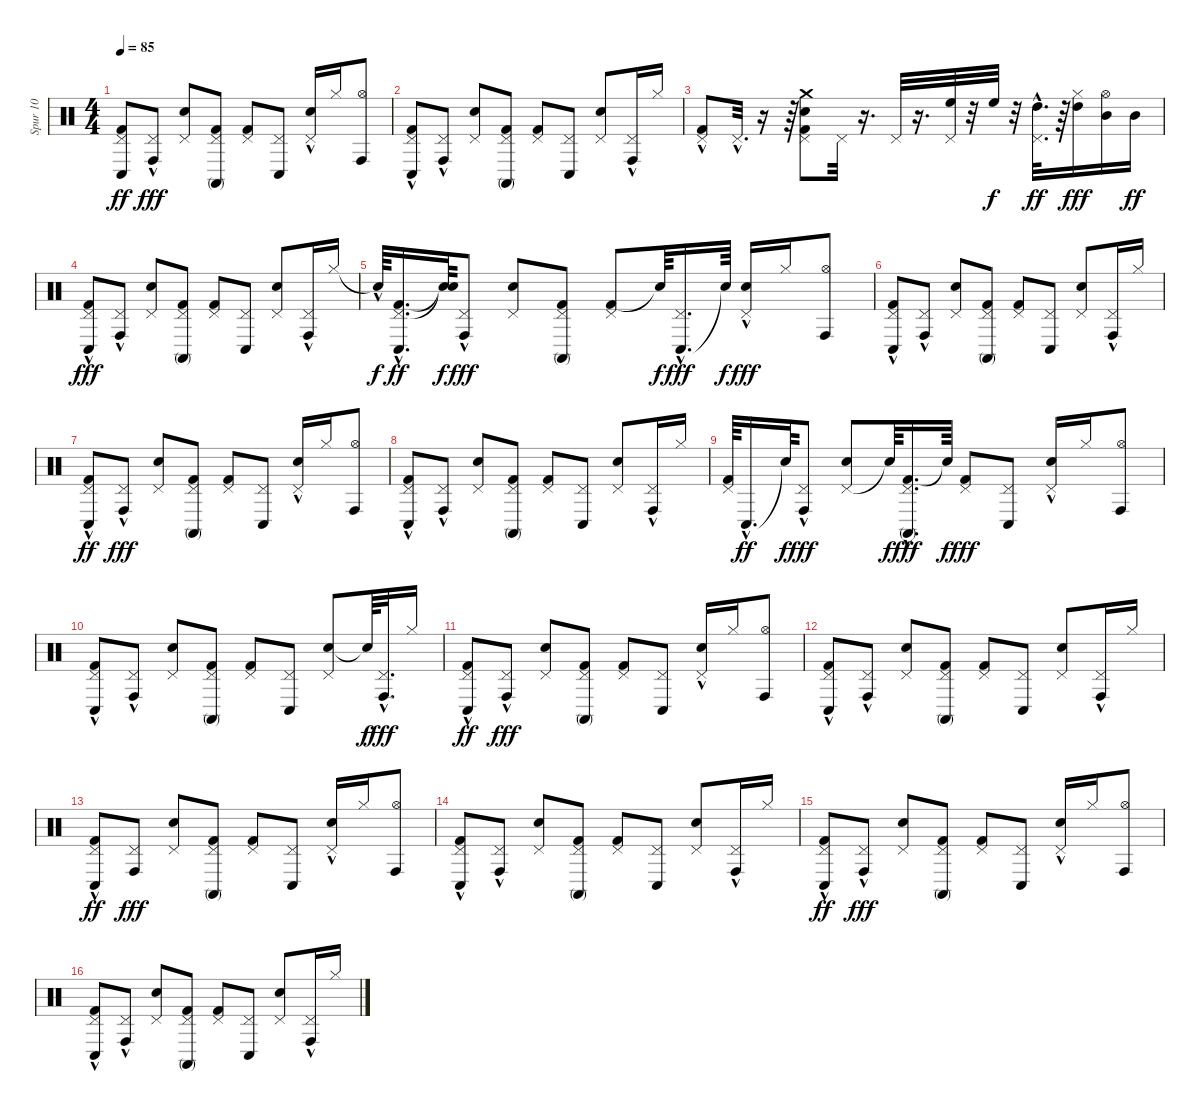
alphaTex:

\track ("Spur 10" "Spur 10") {instrument percussion}
\staff {score}
\articulation defaults
\ts (4 4)
\tempo 85
\clef neutral
\ks c
("Pedal Hi-Hat (hit)" "Kick (hit) 2" "Conga low (hit)").8{dy ff} ("Conga high (hit)" "Pedal Hi-Hat (hit)"{hac}).8{dy fff} ("Pedal Hi-Hat (hit)" "Snare (hit) 2").8 ("Kick (hit) 2" "Conga high (mute)" "Pedal Hi-Hat (hit)").8 ("Kick (hit) 2" "Pedal Hi-Hat (hit)").8 ("Conga low (hit)" "Pedal Hi-Hat (hit)").8 ("Snare (hit) 2" "Pedal Hi-Hat (hit)"{hac}).16 "Hi-Hat (closed)".16 ("Conga high (hit)" "Hi-Hat (open)").8 |
("Kick (hit) 2" "Conga low (hit)" "Pedal Hi-Hat (hit)"{hac}).8 ("Conga high (hit)" "Pedal Hi-Hat (hit)"{hac}).8 ("Snare (hit) 2" "Pedal Hi-Hat (hit)").8 ("Kick (hit) 2" "Conga high (mute)" "Pedal Hi-Hat (hit)").8 ("Kick (hit) 2" "Pedal Hi-Hat (hit)").8 ("Conga low (hit)" "Pedal Hi-Hat (hit)").8 ("Snare (hit) 2" "Pedal Hi-Hat (hit)").8 ("Conga high (hit)" "Pedal Hi-Hat (hit)"{hac}).16 "Hi-Hat (closed)".16 |
("Pedal Hi-Hat (hit)"{hac} "Kick (hit) 2").8 "Pedal Hi-Hat (hit)"{hac}.32{d} r.16 r.64 ("Kick (hit) 2" "Snare (hit) 2" "Pedal Hi-Hat (hit)" "Crash medium (hit)").8 "Pedal Hi-Hat (hit)".32 r.16{d} "Pedal Hi-Hat (hit)".32 r.16{d} ("High Floor Tom (hit)" "Pedal Hi-Hat (hit)").32 r.32 "High Floor Tom (hit)".32{dy f} r.32 ("Pedal Hi-Hat (hit)"{hac} "High Tom (hit)").32{d dy ff} r.64 ("High Tom (hit)" "Hi-Hat (closed)").16{dy fff} ("Mid Tom (hit)" "Hi-Hat (open)").16 "Mid Tom (hit)".16{dy ff} |
("Kick (hit) 2" "Conga low (hit)" "Pedal Hi-Hat (hit)"{hac}).8{dy fff} ("Conga high (hit)" "Pedal Hi-Hat (hit)"{hac}).8 ("Snare (hit) 2" "Pedal Hi-Hat (hit)").8 ("Kick (hit) 2" "Conga high (mute)" "Pedal Hi-Hat (hit)").8 ("Kick (hit) 2" "Pedal Hi-Hat (hit)").8 ("Conga low (hit)" "Pedal Hi-Hat (hit)").8 ("Snare (hit) 2" "Pedal Hi-Hat (hit)").8 ("Conga high (hit)" "Pedal Hi-Hat (hit)"{hac}).16 "Hi-Hat (closed)".16 |
"Snare (hit)"{hac t}.64{dy f} ("Pedal Hi-Hat (hit)" "Kick (hit) 2"{hac} "Conga low (hit)"{hac}).16{d dy ff} ("Snare (hit)"{t} "Snare (hit)"{t}).64{dy f} ("Conga high (hit)" "Pedal Hi-Hat (hit)"{hac}).8{dy fff} ("Pedal Hi-Hat (hit)" "Snare (hit) 2").8 ("Kick (hit) 2" "Conga high (mute)" "Pedal Hi-Hat (hit)").8 ("Kick (hit) 2" "Pedal Hi-Hat (hit)").8 "Snare (hit)"{t}.64{dy f} ("Conga low (hit)"{hac} "Pedal Hi-Hat (hit)").16{d dy fff} "Snare (hit)"{t}.64{dy f} ("Snare (hit) 2" "Pedal Hi-Hat (hit)"{hac}).16{dy fff} "Hi-Hat (closed)".16 ("Conga high (hit)" "Hi-Hat (open)").8 |
("Kick (hit) 2" "Conga low (hit)" "Pedal Hi-Hat (hit)"{hac}).8 ("Conga high (hit)" "Pedal Hi-Hat (hit)"{hac}).8 ("Snare (hit) 2" "Pedal Hi-Hat (hit)").8 ("Kick (hit) 2" "Conga high (mute)" "Pedal Hi-Hat (hit)").8 ("Kick (hit) 2" "Pedal Hi-Hat (hit)").8 ("Conga low (hit)" "Pedal Hi-Hat (hit)").8 ("Snare (hit) 2" "Pedal Hi-Hat (hit)").8 ("Conga high (hit)" "Pedal Hi-Hat (hit)"{hac}).16 "Hi-Hat (closed)".16 |
("Pedal Hi-Hat (hit)"{hac} "Kick (hit) 2" "Conga low (hit)").8{dy ff} ("Conga high (hit)" "Pedal Hi-Hat (hit)"{hac}).8{dy fff} ("Pedal Hi-Hat (hit)" "Snare (hit) 2").8 ("Kick (hit) 2" "Conga high (mute)" "Pedal Hi-Hat (hit)").8 ("Kick (hit) 2" "Pedal Hi-Hat (hit)").8 ("Conga low (hit)" "Pedal Hi-Hat (hit)").8 ("Snare (hit) 2" "Pedal Hi-Hat (hit)"{hac}).16 "Hi-Hat (closed)".16 ("Conga high (hit)" "Hi-Hat (open)").8 |
("Kick (hit) 2" "Conga low (hit)" "Pedal Hi-Hat (hit)"{hac}).8 ("Conga high (hit)" "Pedal Hi-Hat (hit)"{hac}).8 ("Snare (hit) 2" "Pedal Hi-Hat (hit)").8 ("Kick (hit) 2" "Conga high (mute)" "Pedal Hi-Hat (hit)").8 ("Kick (hit) 2" "Pedal Hi-Hat (hit)").8 ("Conga low (hit)" "Pedal Hi-Hat (hit)").8 ("Snare (hit) 2" "Pedal Hi-Hat (hit)").8 ("Conga high (hit)" "Pedal Hi-Hat (hit)"{hac}).16 "Hi-Hat (closed)".16 |
("Pedal Hi-Hat (hit)" "Kick (hit) 2").64 "Conga low (hit)"{hac}.16{d dy ff} "Snare (hit)"{t}.64{dy f} ("Conga high (hit)" "Pedal Hi-Hat (hit)"{hac}).8{dy fff} ("Pedal Hi-Hat (hit)" "Snare (hit) 2").8 "Snare (hit)"{t}.64{dy f} ("Kick (hit) 2" "Conga high (mute)"{hac} "Pedal Hi-Hat (hit)").16{d dy fff} "Snare (hit)"{t}.64{dy f} ("Kick (hit) 2" "Pedal Hi-Hat (hit)").8{dy fff} ("Conga low (hit)" "Pedal Hi-Hat (hit)").8 ("Snare (hit) 2" "Pedal Hi-Hat (hit)"{hac}).16 "Hi-Hat (closed)".16 ("Conga high (hit)" "Hi-Hat (open)").8 |
("Kick (hit) 2" "Conga low (hit)" "Pedal Hi-Hat (hit)"{hac}).8 ("Conga high (hit)" "Pedal Hi-Hat (hit)"{hac}).8 ("Snare (hit) 2" "Pedal Hi-Hat (hit)").8 ("Kick (hit) 2" "Conga high (mute)" "Pedal Hi-Hat (hit)").8 ("Kick (hit) 2" "Pedal Hi-Hat (hit)").8 ("Conga low (hit)" "Pedal Hi-Hat (hit)").8 ("Snare (hit) 2" "Pedal Hi-Hat (hit)").8 "Snare (hit)"{t}.64{dy f} ("Conga high (hit)"{hac} "Pedal Hi-Hat (hit)").32{d dy fff} "Hi-Hat (closed)".16 |
("Pedal Hi-Hat (hit)"{hac} "Kick (hit) 2" "Conga low (hit)").8{dy ff} ("Conga high (hit)" "Pedal Hi-Hat (hit)"{hac}).8{dy fff} ("Pedal Hi-Hat (hit)" "Snare (hit) 2").8 ("Kick (hit) 2" "Conga high (mute)" "Pedal Hi-Hat (hit)").8 ("Kick (hit) 2" "Pedal Hi-Hat (hit)").8 ("Conga low (hit)" "Pedal Hi-Hat (hit)").8 ("Snare (hit) 2" "Pedal Hi-Hat (hit)"{hac}).16 "Hi-Hat (closed)".16 ("Conga high (hit)" "Hi-Hat (open)").8 |
("Kick (hit) 2" "Conga low (hit)" "Pedal Hi-Hat (hit)"{hac}).8 ("Conga high (hit)" "Pedal Hi-Hat (hit)"{hac}).8 ("Snare (hit) 2" "Pedal Hi-Hat (hit)").8 ("Kick (hit) 2" "Conga high (mute)" "Pedal Hi-Hat (hit)").8 ("Kick (hit) 2" "Pedal Hi-Hat (hit)").8 ("Conga low (hit)" "Pedal Hi-Hat (hit)").8 ("Snare (hit) 2" "Pedal Hi-Hat (hit)").8 ("Conga high (hit)" "Pedal Hi-Hat (hit)"{hac}).16 "Hi-Hat (closed)".16 |
("Pedal Hi-Hat (hit)"{hac} "Kick (hit) 2" "Conga low (hit)").8{dy ff} ("Conga high (hit)" "Pedal Hi-Hat (hit)").8{dy fff} ("Pedal Hi-Hat (hit)" "Snare (hit) 2").8 ("Kick (hit) 2" "Conga high (mute)" "Pedal Hi-Hat (hit)").8 ("Kick (hit) 2" "Pedal Hi-Hat (hit)").8 ("Conga low (hit)" "Pedal Hi-Hat (hit)").8 ("Snare (hit) 2" "Pedal Hi-Hat (hit)"{hac}).16 "Hi-Hat (closed)".16 ("Conga high (hit)" "Hi-Hat (open)").8 |
("Kick (hit) 2" "Conga low (hit)" "Pedal Hi-Hat (hit)"{hac}).8 ("Conga high (hit)" "Pedal Hi-Hat (hit)"{hac}).8 ("Snare (hit) 2" "Pedal Hi-Hat (hit)").8 ("Kick (hit) 2" "Conga high (mute)" "Pedal Hi-Hat (hit)").8 ("Kick (hit) 2" "Pedal Hi-Hat (hit)").8 ("Conga low (hit)" "Pedal Hi-Hat (hit)").8 ("Snare (hit) 2" "Pedal Hi-Hat (hit)").8 ("Conga high (hit)" "Pedal Hi-Hat (hit)"{hac}).16 "Hi-Hat (closed)".16 |
("Pedal Hi-Hat (hit)"{hac} "Kick (hit) 2" "Conga low (hit)").8{dy ff} ("Conga high (hit)" "Pedal Hi-Hat (hit)"{hac}).8{dy fff} ("Pedal Hi-Hat (hit)" "Snare (hit) 2").8 ("Kick (hit) 2" "Conga high (mute)" "Pedal Hi-Hat (hit)").8 ("Kick (hit) 2" "Pedal Hi-Hat (hit)").8 ("Conga low (hit)" "Pedal Hi-Hat (hit)").8 ("Snare (hit) 2" "Pedal Hi-Hat (hit)"{hac}).16 "Hi-Hat (closed)".16 ("Conga high (hit)" "Hi-Hat (open)").8 |
("Kick (hit) 2" "Conga low (hit)" "Pedal Hi-Hat (hit)"{hac}).8 ("Conga high (hit)" "Pedal Hi-Hat (hit)"{hac}).8 ("Snare (hit) 2" "Pedal Hi-Hat (hit)").8 ("Kick (hit) 2" "Conga high (mute)" "Pedal Hi-Hat (hit)").8 ("Kick (hit) 2" "Pedal Hi-Hat (hit)").8 ("Conga low (hit)" "Pedal Hi-Hat (hit)").8 ("Snare (hit) 2" "Pedal Hi-Hat (hit)").8 ("Conga high (hit)" "Pedal Hi-Hat (hit)"{hac}).16 "Hi-Hat (closed)".16
